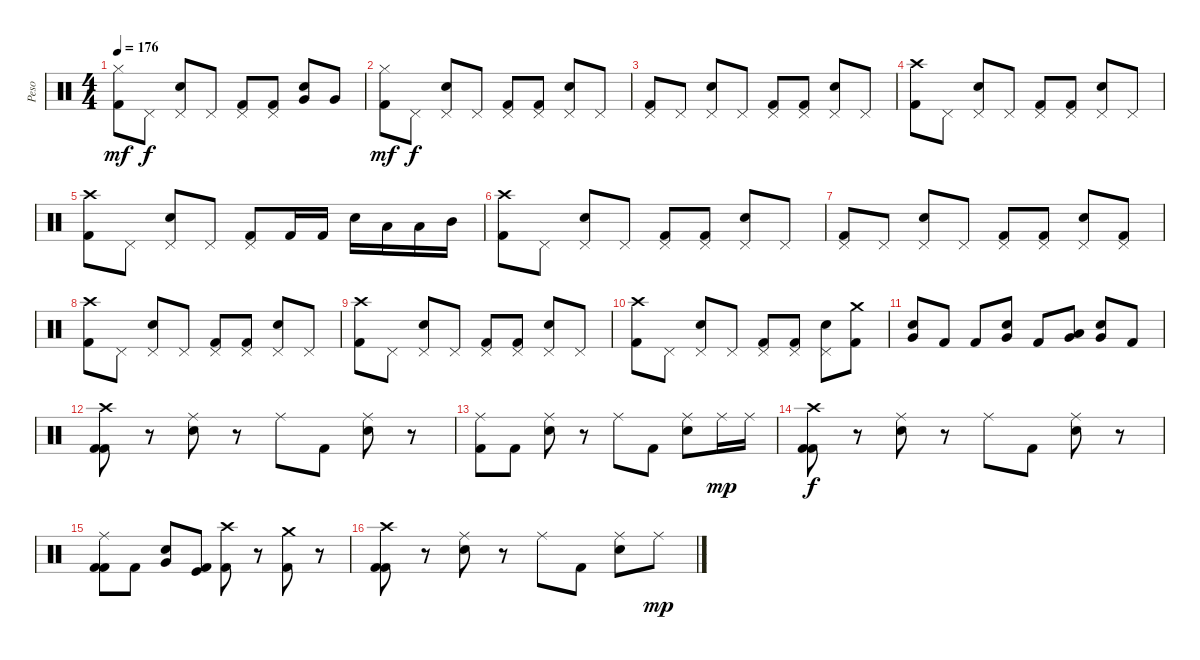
\track ("Peso" "Peso") {instrument percussion}
\staff {score}
\articulation defaults
\ts (4 4)
\tempo 176
\clef neutral
\ks c
("Hi-Hat (closed)" "Kick (hit) 2").8{dy mf} "Pedal Hi-Hat (hit)".8{dy f} ("Pedal Hi-Hat (hit)" "Electric Snare (hit)").8 "Pedal Hi-Hat (hit)".8 ("Pedal Hi-Hat (hit)" "Kick (hit) 2").8 ("Pedal Hi-Hat (hit)" "Kick (hit) 2").8 ("Very Low Tom (hit)" "Electric Snare (hit)").8 "Very Low Tom (hit)".8 |
("Hi-Hat (closed)" "Kick (hit) 2").8{dy mf} "Pedal Hi-Hat (hit)".8{dy f} ("Pedal Hi-Hat (hit)" "Electric Snare (hit)").8 "Pedal Hi-Hat (hit)".8 ("Pedal Hi-Hat (hit)" "Kick (hit) 2").8 ("Pedal Hi-Hat (hit)" "Kick (hit) 2").8 ("Pedal Hi-Hat (hit)" "Electric Snare (hit)").8 "Pedal Hi-Hat (hit)".8 |
("Pedal Hi-Hat (hit)" "Kick (hit) 2").8 "Pedal Hi-Hat (hit)".8 ("Pedal Hi-Hat (hit)" "Electric Snare (hit)").8 "Pedal Hi-Hat (hit)".8 ("Pedal Hi-Hat (hit)" "Kick (hit) 2").8 ("Pedal Hi-Hat (hit)" "Kick (hit) 2").8 ("Pedal Hi-Hat (hit)" "Electric Snare (hit)").8 "Pedal Hi-Hat (hit)".8 |
("Crash high (hit)" "Kick (hit) 2").8 "Pedal Hi-Hat (hit)".8 ("Pedal Hi-Hat (hit)" "Electric Snare (hit)").8 "Pedal Hi-Hat (hit)".8 ("Pedal Hi-Hat (hit)" "Kick (hit) 2").8 ("Pedal Hi-Hat (hit)" "Kick (hit) 2").8 ("Pedal Hi-Hat (hit)" "Electric Snare (hit)").8 "Pedal Hi-Hat (hit)".8 |
("Crash high (hit)" "Kick (hit) 2").8 "Pedal Hi-Hat (hit)".8 ("Pedal Hi-Hat (hit)" "Electric Snare (hit)").8 "Pedal Hi-Hat (hit)".8 ("Pedal Hi-Hat (hit)" "Kick (hit) 2").8 "Kick (hit) 2".16 "Kick (hit) 2".16 "Electric Snare (hit)".16 "Low Tom (hit)".16 "Low Tom (hit)".16 "Mid Tom (hit)".16 |
("Crash high (hit)" "Kick (hit) 2").8 "Pedal Hi-Hat (hit)".8 ("Pedal Hi-Hat (hit)" "Electric Snare (hit)").8 "Pedal Hi-Hat (hit)".8 ("Pedal Hi-Hat (hit)" "Kick (hit) 2").8 ("Pedal Hi-Hat (hit)" "Kick (hit) 2").8 ("Pedal Hi-Hat (hit)" "Electric Snare (hit)").8 "Pedal Hi-Hat (hit)".8 |
("Pedal Hi-Hat (hit)" "Kick (hit) 2").8 "Pedal Hi-Hat (hit)".8 ("Pedal Hi-Hat (hit)" "Electric Snare (hit)").8 "Pedal Hi-Hat (hit)".8 ("Pedal Hi-Hat (hit)" "Kick (hit) 2").8 ("Pedal Hi-Hat (hit)" "Kick (hit) 2").8 ("Pedal Hi-Hat (hit)" "Electric Snare (hit)").8 ("Pedal Hi-Hat (hit)" "Kick (hit) 2").8 |
("Crash high (hit)" "Kick (hit) 2").8 "Pedal Hi-Hat (hit)".8 ("Pedal Hi-Hat (hit)" "Electric Snare (hit)").8 "Pedal Hi-Hat (hit)".8 ("Pedal Hi-Hat (hit)" "Kick (hit) 2").8 ("Pedal Hi-Hat (hit)" "Kick (hit) 2").8 ("Pedal Hi-Hat (hit)" "Electric Snare (hit)").8 "Pedal Hi-Hat (hit)".8 |
("Crash high (hit)" "Kick (hit) 2").8 "Pedal Hi-Hat (hit)".8 ("Pedal Hi-Hat (hit)" "Electric Snare (hit)").8 "Pedal Hi-Hat (hit)".8 ("Pedal Hi-Hat (hit)" "Kick (hit) 2").8 ("Pedal Hi-Hat (hit)" "Kick (hit) 2").8 ("Pedal Hi-Hat (hit)" "Electric Snare (hit)").8 "Pedal Hi-Hat (hit)".8 |
("Crash high (hit)" "Kick (hit) 2").8 "Pedal Hi-Hat (hit)".8 ("Pedal Hi-Hat (hit)" "Electric Snare (hit)").8 "Pedal Hi-Hat (hit)".8 ("Pedal Hi-Hat (hit)" "Kick (hit) 2").8 ("Pedal Hi-Hat (hit)" "Kick (hit) 2").8 ("Pedal Hi-Hat (hit)" "Electric Snare (hit)").8 ("Crash medium (hit)" "Kick (hit) 2").8 |
("Very Low Tom (hit)" "Electric Snare (hit)").8 "Kick (hit) 2".8 "Kick (hit) 2".8 ("Very Low Tom (hit)" "Electric Snare (hit)").8 "Kick (hit) 2".8 ("Very Low Tom (hit)" "Low Tom (hit)").8 ("Very Low Tom (hit)" "Electric Snare (hit)").8 "Kick (hit) 2".8 |
("Crash high (hit)" "Kick (hit) 2" "Kick (hit) 2").8 r.8 ("Ride (middle)" "Electric Snare (hit)").8 r.8 "Ride (middle)".8 "Kick (hit) 2".8 ("Ride (middle)" "Electric Snare (hit)").8 r.8 |
("Ride (middle)" "Kick (hit) 2").8 "Kick (hit) 2".8 ("Ride (middle)" "Electric Snare (hit)").8 r.8 "Ride (middle)".8 "Kick (hit) 2".8 ("Ride (middle)" "Electric Snare (hit)").8 "Ride (middle)".16{dy mp} "Ride (middle)".16 |
("Crash high (hit)" "Kick (hit) 2" "Kick (hit) 2").8{dy f} r.8 ("Ride (middle)" "Electric Snare (hit)").8 r.8 "Ride (middle)".8 "Kick (hit) 2".8 ("Ride (middle)" "Electric Snare (hit)").8 r.8 |
("Ride (middle)" "Kick (hit) 2" "Kick (hit) 2").8 "Kick (hit) 2".8 ("Very Low Tom (hit)" "Electric Snare (hit)").8 ("Kick (hit)" "Kick (hit) 2").8 ("Crash high (hit)" "Kick (hit) 2").8 r.8 ("Crash medium (hit)" "Kick (hit) 2").8 r.8 |
("Crash high (hit)" "Kick (hit) 2" "Kick (hit) 2").8 r.8 ("Ride (middle)" "Electric Snare (hit)").8 r.8 "Ride (middle)".8 "Kick (hit) 2".8 ("Ride (middle)" "Electric Snare (hit)").8 "Ride (middle)".8{dy mp}
